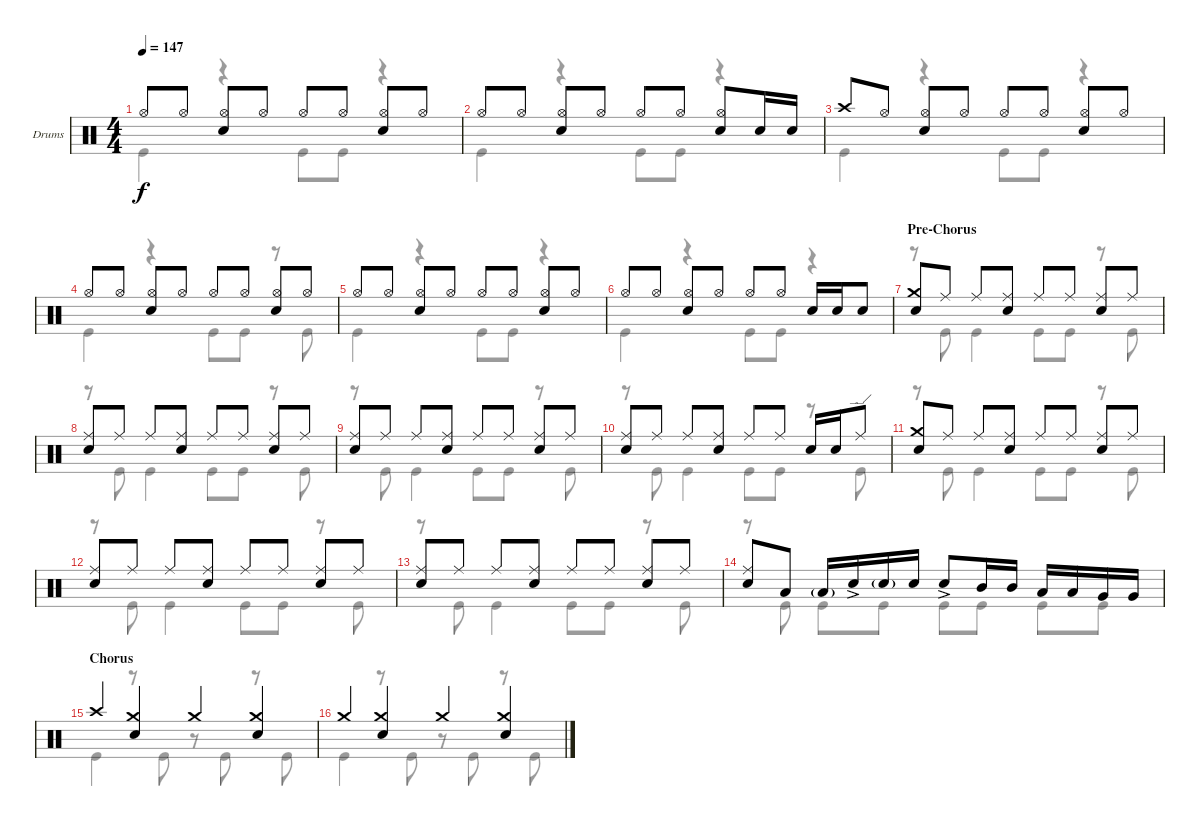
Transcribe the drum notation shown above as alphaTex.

\defaultSystemsLayout 4
\bracketExtendMode groupsimilarinstruments
\firstSystemTrackNameOrientation horizontal
\otherSystemsTrackNameOrientation horizontal
\track ("Drums" "Drums") {instrument percussion}
\staff {score}
\articulation defaults
\voice
\ts (4 4)
\tempo 147
\clef neutral
\ks c "Hi-Hat (open)".8{dy f} "Hi-Hat (open)".8
("Hi-Hat (open)" "Snare (hit) 2").8 "Hi-Hat (open)".8 "Hi-Hat (open)".8 "Hi-Hat (open)".8 ("Hi-Hat (open)" "Snare (hit) 2").8 "Hi-Hat (open)".8 |
"Hi-Hat (open)".8 "Hi-Hat (open)".8 ("Hi-Hat (open)" "Snare (hit) 2").8 "Hi-Hat (open)".8 "Hi-Hat (open)".8 "Hi-Hat (open)".8 ("Hi-Hat (open)" "Snare (hit) 2").8 "Snare (hit) 2".16 "Snare (hit) 2".16 |
"Crash high (hit)".8 "Hi-Hat (open)".8 ("Hi-Hat (open)" "Snare (hit) 2").8 "Hi-Hat (open)".8 "Hi-Hat (open)".8 "Hi-Hat (open)".8 ("Hi-Hat (open)" "Snare (hit) 2").8 "Hi-Hat (open)".8 |
"Hi-Hat (open)".8 "Hi-Hat (open)".8 ("Hi-Hat (open)" "Snare (hit) 2").8 "Hi-Hat (open)".8 "Hi-Hat (open)".8 "Hi-Hat (open)".8 ("Hi-Hat (open)" "Snare (hit) 2").8 "Hi-Hat (open)".8 |
"Hi-Hat (open)".8 "Hi-Hat (open)".8 ("Hi-Hat (open)" "Snare (hit) 2").8 "Hi-Hat (open)".8 "Hi-Hat (open)".8 "Hi-Hat (open)".8 ("Hi-Hat (open)" "Snare (hit) 2").8 "Hi-Hat (open)".8 |
"Hi-Hat (open)".8 "Hi-Hat (open)".8 ("Hi-Hat (open)" "Snare (hit) 2").8 "Hi-Hat (open)".8 "Hi-Hat (open)".8 "Hi-Hat (open)".8 "Snare (hit) 2".16 "Snare (hit) 2".16 "Snare (hit) 2".8 |
\section ("" "Pre-Chorus")
("Snare (hit) 2" "Crash medium (hit)").8 "Ride (middle)".8 "Ride (middle)".8 ("Ride (middle)" "Snare (hit) 2").8 "Ride (middle)".8 "Ride (middle)".8 ("Ride (middle)" "Snare (hit) 2").8 "Ride (middle)".8 |
("Ride (middle)" "Snare (hit) 2").8 "Ride (middle)".8 "Ride (middle)".8 ("Ride (middle)" "Snare (hit) 2").8 "Ride (middle)".8 "Ride (middle)".8 ("Ride (middle)" "Snare (hit) 2").8 "Ride (middle)".8 |
("Ride (middle)" "Snare (hit) 2").8 "Ride (middle)".8 "Ride (middle)".8 ("Ride (middle)" "Snare (hit) 2").8 "Ride (middle)".8 "Ride (middle)".8 ("Ride (middle)" "Snare (hit) 2").8 "Ride (middle)".8 |
("Ride (middle)" "Snare (hit) 2").8 "Ride (middle)".8 "Ride (middle)".8 ("Ride (middle)" "Snare (hit) 2").8 "Ride (middle)".8 "Ride (middle)".8 "Snare (hit) 2".16 "Snare (hit) 2".16 "Ride (edge)".8 |
("Snare (hit) 2" "Crash medium (hit)").8 "Ride (middle)".8 "Ride (middle)".8 ("Ride (middle)" "Snare (hit) 2").8 "Ride (middle)".8 "Ride (middle)".8 ("Ride (middle)" "Snare (hit) 2").8 "Ride (middle)".8 |
("Ride (middle)" "Snare (hit) 2").8 "Ride (middle)".8 "Ride (middle)".8 ("Ride (middle)" "Snare (hit) 2").8 "Ride (middle)".8 "Ride (middle)".8 ("Ride (middle)" "Snare (hit) 2").8 "Ride (middle)".8 |
("Ride (middle)" "Snare (hit) 2").8 "Ride (middle)".8 "Ride (middle)".8 ("Ride (middle)" "Snare (hit) 2").8 "Ride (middle)".8 "Ride (middle)".8 ("Ride (middle)" "Snare (hit) 2").8 "Ride (middle)".8 |
("Ride (middle)" "Snare (hit) 2").8 "Low Tom (hit)".8 "Low Tom (hit)"{g}.16 "Snare (hit) 2"{ac}.16 "Snare (hit) 2"{g}.16 "Snare (hit) 2".16 "Snare (hit) 2"{ac}.8 "Mid Tom (hit)".16 "Mid Tom (hit)".16 "Low Tom (hit)".16 "Low Tom (hit)".16 "Very Low Tom (hit)".16 "Very Low Tom (hit)".16 |
\section ("" "Chorus")
"Crash high (hit)".4 ("Crash medium (hit)" "Snare (hit) 2").4 "Crash medium (hit)".4 ("Crash medium (hit)" "Snare (hit) 2").4 |
"Crash medium (hit)".4 ("Crash medium (hit)" "Snare (hit) 2").4 "Crash medium (hit)".4 ("Crash medium (hit)" "Snare (hit) 2").4
\voice
\clef neutral
\ottava regular
\simile none
\ks c "Kick (hit)".4{dy f}
r.4 "Kick (hit)".8 "Kick (hit)".8 r.4 |
"Kick (hit)".4 r.4 "Kick (hit)".8 "Kick (hit)".8 r.4 |
"Kick (hit)".4 r.4 "Kick (hit)".8 "Kick (hit)".8 r.4 |
"Kick (hit)".4 r.4 "Kick (hit)".8 "Kick (hit)".8 r.8 "Kick (hit)".8 |
"Kick (hit)".4 r.4 "Kick (hit)".8 "Kick (hit)".8 r.4 |
"Kick (hit)".4 r.4 "Kick (hit)".8 "Kick (hit)".8 r.4 |
r.8 "Kick (hit)".8 "Kick (hit)".4 "Kick (hit)".8 "Kick (hit)".8 r.8 "Kick (hit)".8 |
r.8 "Kick (hit)".8 "Kick (hit)".4 "Kick (hit)".8 "Kick (hit)".8 r.8 "Kick (hit)".8 |
r.8 "Kick (hit)".8 "Kick (hit)".4 "Kick (hit)".8 "Kick (hit)".8 r.8 "Kick (hit)".8 |
r.8 "Kick (hit)".8 "Kick (hit)".4 "Kick (hit)".8 "Kick (hit)".8 r.8 "Kick (hit)".8 |
r.8 "Kick (hit)".8 "Kick (hit)".4 "Kick (hit)".8 "Kick (hit)".8 r.8 "Kick (hit)".8 |
r.8 "Kick (hit)".8 "Kick (hit)".4 "Kick (hit)".8 "Kick (hit)".8 r.8 "Kick (hit)".8 |
r.8 "Kick (hit)".8 "Kick (hit)".4 "Kick (hit)".8 "Kick (hit)".8 r.8 "Kick (hit)".8 |
r.8 "Kick (hit)".8 "Kick (hit)".8 "Kick (hit)".8 "Kick (hit)".8 "Kick (hit)".8 "Kick (hit)".8 "Kick (hit)".8 |
"Kick (hit)".4 r.8 "Kick (hit)".8 r.8 "Kick (hit)".8 r.8 "Kick (hit)".8 |
"Kick (hit)".4 r.8 "Kick (hit)".8 r.8 "Kick (hit)".8 r.8 "Kick (hit)".8
